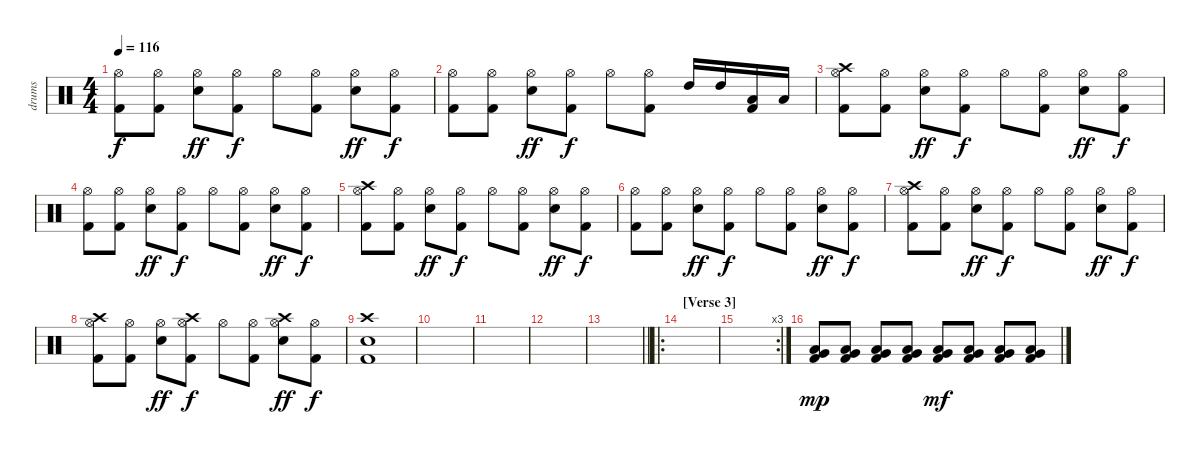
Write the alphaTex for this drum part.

\track ("drums" "drums") {instrument percussion}
\staff {score}
\articulation defaults
\ts (4 4)
\tempo 116
\clef neutral
\ks c
("Hi-Hat (open)" "Kick (hit) 2").8{dy f} ("Hi-Hat (open)" "Kick (hit) 2").8 ("Hi-Hat (open)" "Snare (hit) 2").8{dy ff} ("Hi-Hat (open)" "Kick (hit) 2").8{dy f} "Hi-Hat (open)".8 ("Hi-Hat (open)" "Kick (hit) 2").8 ("Hi-Hat (open)" "Snare (hit) 2").8{dy ff} ("Hi-Hat (open)" "Kick (hit) 2").8{dy f} |
("Hi-Hat (open)" "Kick (hit) 2").8 ("Hi-Hat (open)" "Kick (hit) 2").8 ("Hi-Hat (open)" "Snare (hit) 2").8{dy ff} ("Hi-Hat (open)" "Kick (hit) 2").8{dy f} "Hi-Hat (open)".8 ("Hi-Hat (open)" "Kick (hit) 2").8 "High Tom (hit)".16 "High Tom (hit)".16 ("Low Tom (hit)" "Kick (hit) 2").16 "Low Tom (hit)".16 |
("Crash high (hit)" "Hi-Hat (open)" "Kick (hit) 2").8 ("Hi-Hat (open)" "Kick (hit) 2").8 ("Hi-Hat (open)" "Snare (hit) 2").8{dy ff} ("Hi-Hat (open)" "Kick (hit) 2").8{dy f} "Hi-Hat (open)".8 ("Hi-Hat (open)" "Kick (hit) 2").8 ("Hi-Hat (open)" "Snare (hit) 2").8{dy ff} ("Hi-Hat (open)" "Kick (hit) 2").8{dy f} |
("Hi-Hat (open)" "Kick (hit) 2").8 ("Hi-Hat (open)" "Kick (hit) 2").8 ("Hi-Hat (open)" "Snare (hit) 2").8{dy ff} ("Hi-Hat (open)" "Kick (hit) 2").8{dy f} "Hi-Hat (open)".8 ("Hi-Hat (open)" "Kick (hit) 2").8 ("Hi-Hat (open)" "Snare (hit) 2").8{dy ff} ("Hi-Hat (open)" "Kick (hit) 2").8{dy f} |
("Crash high (hit)" "Hi-Hat (open)" "Kick (hit) 2").8 ("Hi-Hat (open)" "Kick (hit) 2").8 ("Hi-Hat (open)" "Snare (hit) 2").8{dy ff} ("Hi-Hat (open)" "Kick (hit) 2").8{dy f} "Hi-Hat (open)".8 ("Hi-Hat (open)" "Kick (hit) 2").8 ("Hi-Hat (open)" "Snare (hit) 2").8{dy ff} ("Hi-Hat (open)" "Kick (hit) 2").8{dy f} |
("Hi-Hat (open)" "Kick (hit) 2").8 ("Hi-Hat (open)" "Kick (hit) 2").8 ("Hi-Hat (open)" "Snare (hit) 2").8{dy ff} ("Hi-Hat (open)" "Kick (hit) 2").8{dy f} "Hi-Hat (open)".8 ("Hi-Hat (open)" "Kick (hit) 2").8 ("Hi-Hat (open)" "Snare (hit) 2").8{dy ff} ("Hi-Hat (open)" "Kick (hit) 2").8{dy f} |
("Crash high (hit)" "Hi-Hat (open)" "Kick (hit) 2").8 ("Hi-Hat (open)" "Kick (hit) 2").8 ("Hi-Hat (open)" "Snare (hit) 2").8{dy ff} ("Hi-Hat (open)" "Kick (hit) 2").8{dy f} "Hi-Hat (open)".8 ("Hi-Hat (open)" "Kick (hit) 2").8 ("Hi-Hat (open)" "Snare (hit) 2").8{dy ff} ("Hi-Hat (open)" "Kick (hit) 2").8{dy f} |
("Crash high (hit)" "Hi-Hat (open)" "Kick (hit) 2").8 ("Hi-Hat (open)" "Kick (hit) 2").8 ("Hi-Hat (open)" "Snare (hit) 2").8{dy ff} ("Crash high (hit)" "Hi-Hat (open)" "Kick (hit) 2").8{dy f} "Hi-Hat (open)".8 ("Hi-Hat (open)" "Kick (hit) 2").8 ("Crash high (hit)" "Hi-Hat (open)" "Snare (hit) 2").8{dy ff} ("Hi-Hat (open)" "Kick (hit) 2").8{dy f} |
("Crash high (hit)" "Snare (hit) 2" "Kick (hit) 2").1 |
|
|
|
\barLineRight lightlight
|
\ro
\section ("" "[Verse 3]")
|
\rc 3
|
("Very Low Tom (hit)" "Low Tom (hit)" "Kick (hit) 2").8{dy mp} ("Very Low Tom (hit)" "Low Tom (hit)" "Kick (hit) 2").8 ("Very Low Tom (hit)" "Low Tom (hit)" "Kick (hit) 2").8 ("Very Low Tom (hit)" "Low Tom (hit)" "Kick (hit) 2").8 ("Very Low Tom (hit)" "Low Tom (hit)" "Kick (hit) 2").8{dy mf} ("Very Low Tom (hit)" "Low Tom (hit)" "Kick (hit) 2").8 ("Very Low Tom (hit)" "Low Tom (hit)" "Kick (hit) 2").8 ("Very Low Tom (hit)" "Low Tom (hit)" "Kick (hit) 2").8
